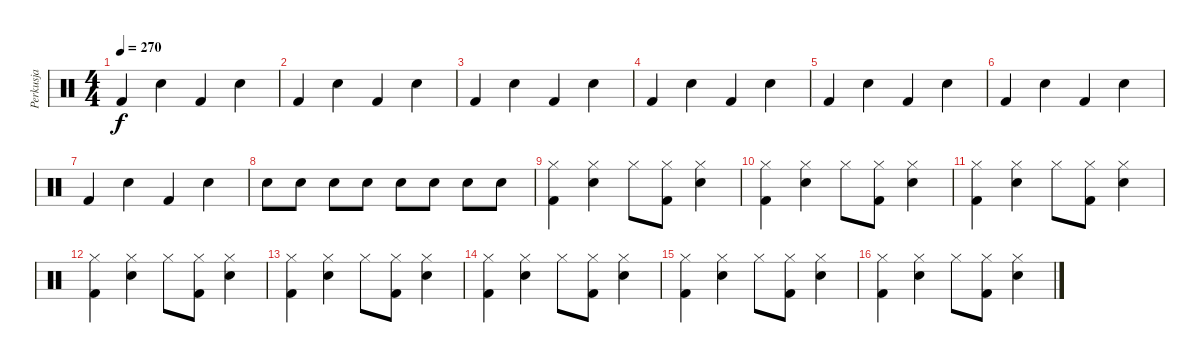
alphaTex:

\track ("Perkusja" "Perkusja") {instrument percussion}
\staff {score}
\articulation defaults
\ts (4 4)
\tempo 270
\clef neutral
\ks c "Kick (hit) 2".4{dy f} "Electric Snare (hit)".4 "Kick (hit) 2".4 "Electric Snare (hit)".4
|
"Kick (hit) 2".4 "Electric Snare (hit)".4 "Kick (hit) 2".4 "Electric Snare (hit)".4 |
"Kick (hit) 2".4 "Electric Snare (hit)".4 "Kick (hit) 2".4 "Electric Snare (hit)".4 |
"Kick (hit) 2".4 "Electric Snare (hit)".4 "Kick (hit) 2".4 "Electric Snare (hit)".4 |
"Kick (hit) 2".4 "Electric Snare (hit)".4 "Kick (hit) 2".4 "Electric Snare (hit)".4 |
"Kick (hit) 2".4 "Electric Snare (hit)".4 "Kick (hit) 2".4 "Electric Snare (hit)".4 |
"Kick (hit) 2".4 "Electric Snare (hit)".4 "Kick (hit) 2".4 "Electric Snare (hit)".4 |
"Electric Snare (hit)".8 "Electric Snare (hit)".8 "Electric Snare (hit)".8 "Electric Snare (hit)".8 "Electric Snare (hit)".8 "Electric Snare (hit)".8 "Electric Snare (hit)".8 "Electric Snare (hit)".8 |
("Hi-Hat (closed)" "Kick (hit) 2").4 ("Hi-Hat (closed)" "Electric Snare (hit)").4 "Hi-Hat (closed)".8 ("Hi-Hat (closed)" "Kick (hit) 2").8 ("Hi-Hat (closed)" "Electric Snare (hit)").4 |
("Hi-Hat (closed)" "Kick (hit) 2").4 ("Hi-Hat (closed)" "Electric Snare (hit)").4 "Hi-Hat (closed)".8 ("Hi-Hat (closed)" "Kick (hit) 2").8 ("Hi-Hat (closed)" "Electric Snare (hit)").4 |
("Hi-Hat (closed)" "Kick (hit) 2").4 ("Hi-Hat (closed)" "Electric Snare (hit)").4 "Hi-Hat (closed)".8 ("Hi-Hat (closed)" "Kick (hit) 2").8 ("Hi-Hat (closed)" "Electric Snare (hit)").4 |
("Hi-Hat (closed)" "Kick (hit) 2").4 ("Hi-Hat (closed)" "Electric Snare (hit)").4 "Hi-Hat (closed)".8 ("Hi-Hat (closed)" "Kick (hit) 2").8 ("Hi-Hat (closed)" "Electric Snare (hit)").4 |
("Hi-Hat (closed)" "Kick (hit) 2").4 ("Hi-Hat (closed)" "Electric Snare (hit)").4 "Hi-Hat (closed)".8 ("Hi-Hat (closed)" "Kick (hit) 2").8 ("Hi-Hat (closed)" "Electric Snare (hit)").4 |
("Hi-Hat (closed)" "Kick (hit) 2").4 ("Hi-Hat (closed)" "Electric Snare (hit)").4 "Hi-Hat (closed)".8 ("Hi-Hat (closed)" "Kick (hit) 2").8 ("Hi-Hat (closed)" "Electric Snare (hit)").4 |
("Hi-Hat (closed)" "Kick (hit) 2").4 ("Hi-Hat (closed)" "Electric Snare (hit)").4 "Hi-Hat (closed)".8 ("Hi-Hat (closed)" "Kick (hit) 2").8 ("Hi-Hat (closed)" "Electric Snare (hit)").4 |
("Hi-Hat (closed)" "Kick (hit) 2").4 ("Hi-Hat (closed)" "Electric Snare (hit)").4 "Hi-Hat (closed)".8 ("Hi-Hat (closed)" "Kick (hit) 2").8 ("Hi-Hat (closed)" "Electric Snare (hit)").4
